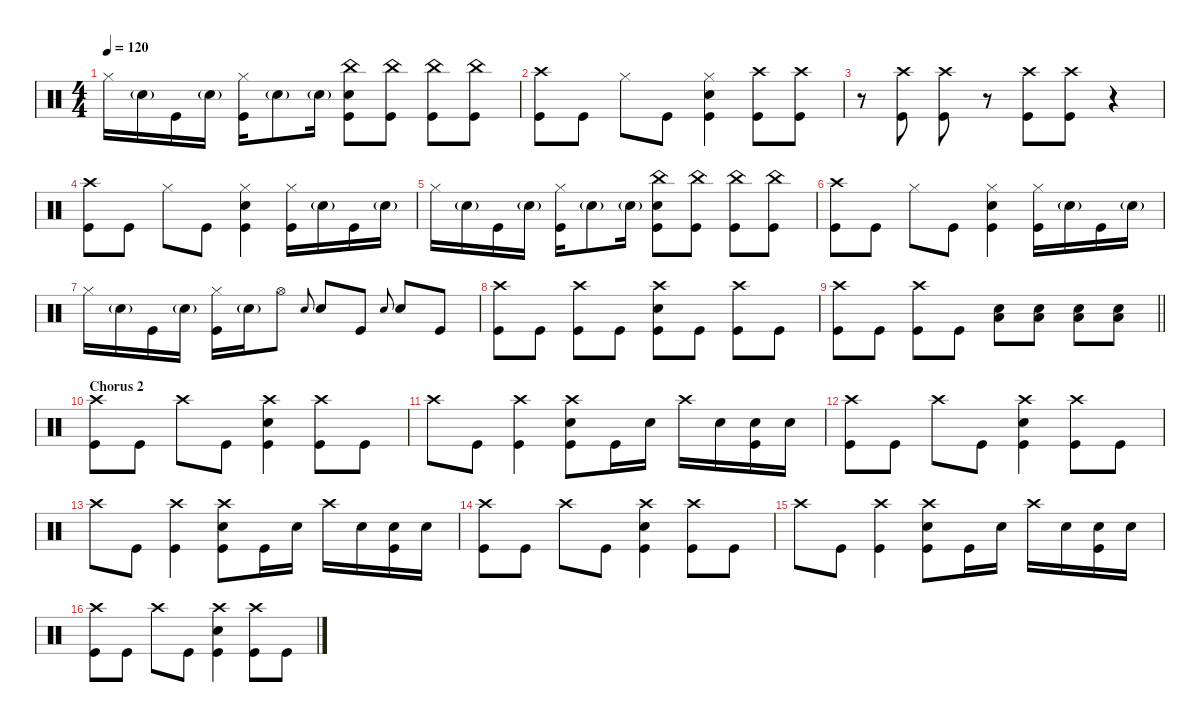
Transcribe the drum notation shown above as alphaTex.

\defaultSystemsLayout 4
\hideDynamics
\bracketExtendMode nobrackets
\singleTrackTrackNamePolicy hidden
\multiTrackTrackNamePolicy hidden
\firstSystemTrackNameMode fullname
\firstSystemTrackNameOrientation horizontal
\otherSystemsTrackNameOrientation horizontal
\track ("Drums" "drm.") {instrument percussion}
\staff {score}
\articulation defaults
\ts (4 4)
\tempo 120
\clef neutral
\ks c "Hi-Hat (closed)".16{dy mf beam Down} "Snare (hit) 2"{g}.16{dy mp beam Down} "Kick (hit)".16{dy mf beam Down} "Snare (hit) 2"{g}.16{dy mp beam Down}
("Kick (hit)" "Hi-Hat (closed)").16{dy mf beam Down} "Snare (hit) 2"{g}.8{dy mp beam Down} "Snare (hit) 2"{g}.16{beam Down} ("Snare (hit) 2" "China (hit)" "Kick (hit)").8{dy f beam Down} ("China (hit)" "Kick (hit)").8{dy mf beam Down} ("China (hit)" "Kick (hit)").8{beam Down} ("China (hit)" "Kick (hit)").8{beam Down} |
("Kick (hit)" "Crash high (hit)").8{beam Down} "Kick (hit)".8{beam Down} "Hi-Hat (closed)".8{beam Down} "Kick (hit)".8{beam Down} ("Kick (hit)" "Snare (hit) 2" "Hi-Hat (closed)").4{beam Down} ("Kick (hit)" "Crash high (hit)").8{beam Down} ("Crash high (hit)" "Kick (hit)").8{beam Down} |
r.8{beam Down} ("Kick (hit)" "Crash high (hit)").8{beam Down} ("Crash high (hit)" "Kick (hit)").8{beam Down} r.8{beam Down} ("Crash high (hit)" "Kick (hit)").8{beam Down} ("Kick (hit)" "Crash high (hit)").8{beam Down} r.4{beam Down} |
("Kick (hit)" "Crash high (hit)").8{beam Down} "Kick (hit)".8{beam Down} "Hi-Hat (closed)".8{beam Down} "Kick (hit)".8{beam Down} ("Kick (hit)" "Snare (hit) 2" "Hi-Hat (closed)").4{beam Down} ("Kick (hit)" "Hi-Hat (closed)").16{beam Down} "Snare (hit) 2"{g}.16{dy mp beam Down} "Kick (hit)".16{dy mf beam Down} "Snare (hit) 2"{g}.16{dy mp beam Down} |
"Hi-Hat (closed)".16{dy mf beam Down} "Snare (hit) 2"{g}.16{dy mp beam Down} "Kick (hit)".16{dy mf beam Down} "Snare (hit) 2"{g}.16{dy mp beam Down} ("Kick (hit)" "Hi-Hat (closed)").16{dy mf beam Down} "Snare (hit) 2"{g}.8{dy mp beam Down} "Snare (hit) 2"{g}.16{beam Down} ("Snare (hit) 2" "China (hit)" "Kick (hit)").8{dy mf beam Down} ("China (hit)" "Kick (hit)").8{beam Down} ("China (hit)" "Kick (hit)").8{beam Down} ("China (hit)" "Kick (hit)").8{beam Down} |
("Crash high (hit)" "Kick (hit)").8{beam Down} "Kick (hit)".8{beam Down} "Hi-Hat (closed)".8{beam Down} "Kick (hit)".8{beam Down} ("Snare (hit) 2" "Hi-Hat (closed)" "Kick (hit)").4{beam Down} ("Hi-Hat (closed)" "Kick (hit)").16{beam Down} "Snare (hit) 2"{g}.16{dy mp beam Down} "Kick (hit)".16{dy mf beam Down} "Snare (hit) 2"{g}.16{dy mp beam Down} |
"Hi-Hat (closed)".16{dy mf beam Down} "Snare (hit) 2"{g}.16{dy mp beam Down} "Kick (hit)".16{dy mf beam Down} "Snare (hit) 2"{g}.16{dy mp beam Down} ("Hi-Hat (closed)" "Kick (hit)").16{dy mf beam Down} "Snare (hit) 2"{g}.16{dy mp beam Down} "Hi-Hat (open)".8{dy mf beam Down} "Snare (hit) 2".8{gr onbeat dy mp beam Up} "Snare (hit) 2".8{dy mf beam Up} "Kick (hit)".8{beam Up} "Snare (hit) 2".8{gr onbeat dy mp beam Up} "Snare (hit) 2".8{dy mf beam Up} "Kick (hit)".8{beam Up} |
("Crash high (hit)" "Kick (hit)").8{beam Down} "Kick (hit)".8{beam Down} ("Crash high (hit)" "Kick (hit)").8{beam Down} "Kick (hit)".8{beam Down} ("Snare (hit) 2" "Crash high (hit)" "Kick (hit)").8{beam Down} "Kick (hit)".8{beam Down} ("Crash high (hit)" "Kick (hit)").8{beam Down} "Kick (hit)".8{beam Down} |
\barLineRight lightlight
("Crash high (hit)" "Kick (hit)").8{beam Down} "Kick (hit)".8{beam Down} ("Crash high (hit)" "Kick (hit)").8{beam Down} "Kick (hit)".8{beam Down} ("Snare (hit) 2" "Low Floor Tom (hit)").8{beam Down} ("Snare (hit) 2" "Low Floor Tom (hit)").8{beam Down} ("Snare (hit) 2" "Low Floor Tom (hit)").8{beam Down} ("Snare (hit) 2" "Low Floor Tom (hit)").8{beam Down} |
\section ("" "Chorus 2")
("Crash high (hit)" "Kick (hit)").8{beam Down} "Kick (hit)".8{beam Down} "Crash high (hit)".8{beam Down} "Kick (hit)".8{beam Down} ("Snare (hit) 2" "Crash high (hit)" "Kick (hit)").4{beam Down} ("Crash high (hit)" "Kick (hit)").8{beam Down} "Kick (hit)".8{beam Down} |
"Crash high (hit)".8{beam Down} "Kick (hit)".8{beam Down} ("Crash high (hit)" "Kick (hit)").4{beam Down} ("Snare (hit) 2" "Crash high (hit)" "Kick (hit)").8{beam Down} "Kick (hit)".16{beam Down} "Snare (hit) 2".16{beam Down} "Crash high (hit)".16{beam Down} "Snare (hit) 2".16{beam Down} ("Kick (hit)" "Snare (hit) 2").16{beam Down} "Snare (hit) 2".16{beam Down} |
("Kick (hit)" "Crash high (hit)").8{beam Down} "Kick (hit)".8{beam Down} "Crash high (hit)".8{beam Down} "Kick (hit)".8{beam Down} ("Kick (hit)" "Snare (hit) 2" "Crash high (hit)").4{beam Down} ("Kick (hit)" "Crash high (hit)").8{beam Down} "Kick (hit)".8{beam Down} |
"Crash high (hit)".8{beam Down} "Kick (hit)".8{beam Down} ("Crash high (hit)" "Kick (hit)").4{beam Down} ("Snare (hit) 2" "Crash high (hit)" "Kick (hit)").8{beam Down} "Kick (hit)".16{beam Down} "Snare (hit) 2".16{beam Down} "Crash high (hit)".16{beam Down} "Snare (hit) 2".16{beam Down} ("Snare (hit) 2" "Kick (hit)").16{beam Down} "Snare (hit) 2".16{beam Down} |
("Kick (hit)" "Crash high (hit)").8{beam Down} "Kick (hit)".8{beam Down} "Crash high (hit)".8{beam Down} "Kick (hit)".8{beam Down} ("Kick (hit)" "Snare (hit) 2" "Crash high (hit)").4{beam Down} ("Kick (hit)" "Crash high (hit)").8{beam Down} "Kick (hit)".8{beam Down} |
"Crash high (hit)".8{beam Down} "Kick (hit)".8{beam Down} ("Kick (hit)" "Crash high (hit)").4{beam Down} ("Kick (hit)" "Snare (hit) 2" "Crash high (hit)").8{beam Down} "Kick (hit)".16{beam Down} "Snare (hit) 2".16{beam Down} "Crash high (hit)".16{beam Down} "Snare (hit) 2".16{beam Down} ("Snare (hit) 2" "Kick (hit)").16{beam Down} "Snare (hit) 2".16{beam Down} |
("Kick (hit)" "Crash high (hit)").8{beam Down} "Kick (hit)".8{beam Down} "Crash high (hit)".8{beam Down} "Kick (hit)".8{beam Down} ("Kick (hit)" "Snare (hit) 2" "Crash high (hit)").4{beam Down} ("Kick (hit)" "Crash high (hit)").8{beam Down} "Kick (hit)".8{beam Down}
